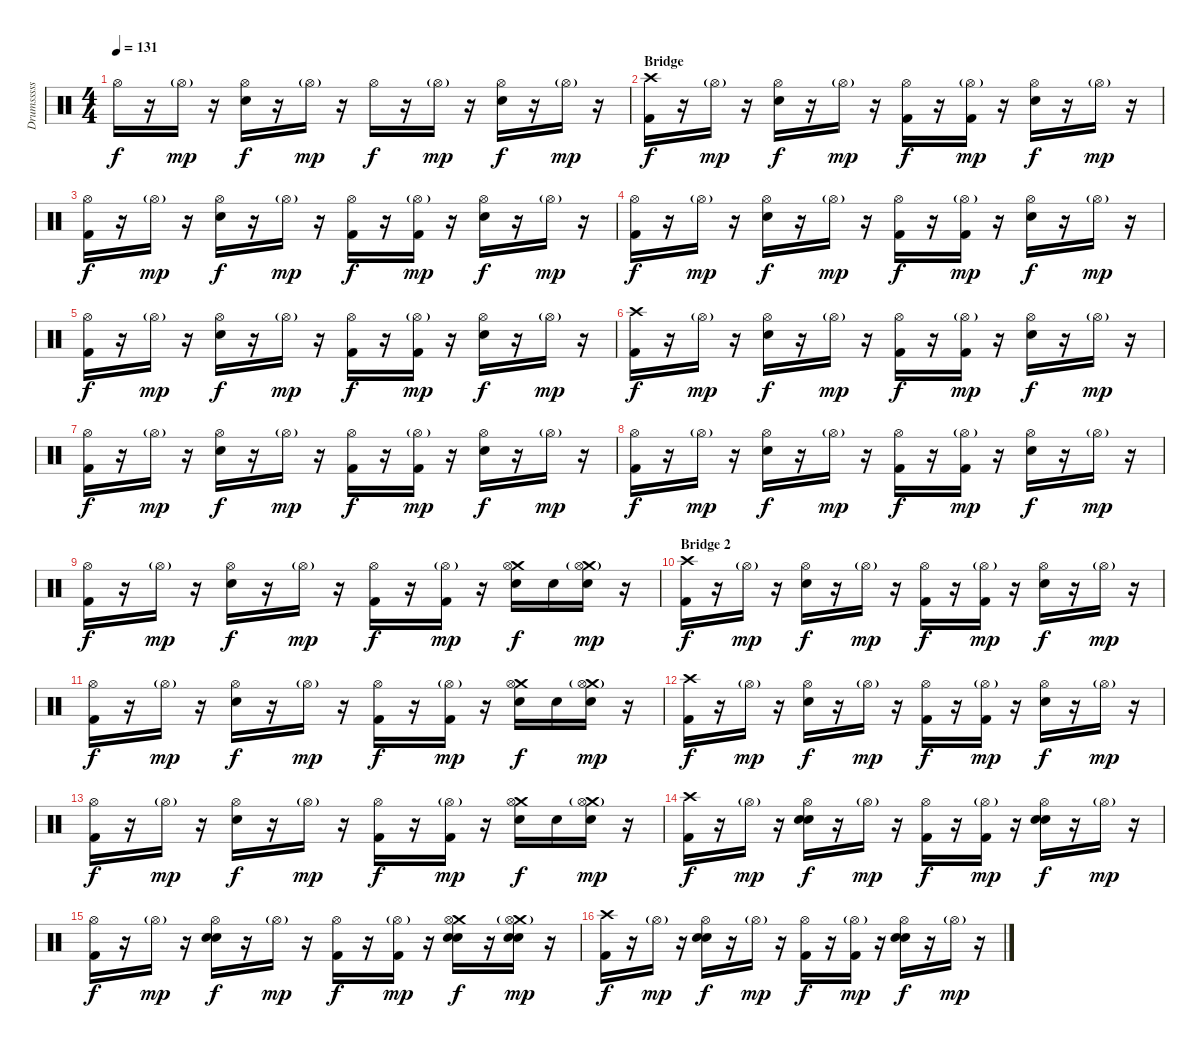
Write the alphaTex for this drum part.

\track ("Drumsssss" "Drumsssss") {instrument percussion}
\staff {score}
\articulation defaults
\ts (4 4)
\tempo 131
\clef neutral
\ks c "Hi-Hat (open)".16{dy f}
r.16 "Hi-Hat (open)"{g}.16{dy mp} r.16 ("Hi-Hat (open)" "Snare (hit) 2").16{dy f} r.16 "Hi-Hat (open)"{g}.16{dy mp} r.16 "Hi-Hat (open)".16{dy f} r.16 "Hi-Hat (open)"{g}.16{dy mp} r.16 ("Hi-Hat (open)" "Snare (hit) 2").16{dy f} r.16 "Hi-Hat (open)"{g}.16{dy mp} r.16 |
\section ("" "Bridge")
("Crash high (hit)" "Kick (hit) 2").16{dy f} r.16 "Hi-Hat (open)"{g}.16{dy mp} r.16 ("Hi-Hat (open)" "Snare (hit) 2").16{dy f} r.16 "Hi-Hat (open)"{g}.16{dy mp} r.16 ("Hi-Hat (open)" "Kick (hit) 2").16{dy f} r.16 ("Hi-Hat (open)"{g} "Kick (hit) 2").16{dy mp} r.16 ("Hi-Hat (open)" "Snare (hit) 2").16{dy f} r.16 "Hi-Hat (open)"{g}.16{dy mp} r.16 |
("Hi-Hat (open)" "Kick (hit) 2").16{dy f} r.16 "Hi-Hat (open)"{g}.16{dy mp} r.16 ("Hi-Hat (open)" "Snare (hit) 2").16{dy f} r.16 "Hi-Hat (open)"{g}.16{dy mp} r.16 ("Hi-Hat (open)" "Kick (hit) 2").16{dy f} r.16 ("Hi-Hat (open)"{g} "Kick (hit) 2").16{dy mp} r.16 ("Hi-Hat (open)" "Snare (hit) 2").16{dy f} r.16 "Hi-Hat (open)"{g}.16{dy mp} r.16 |
("Hi-Hat (open)" "Kick (hit) 2").16{dy f} r.16 "Hi-Hat (open)"{g}.16{dy mp} r.16 ("Hi-Hat (open)" "Snare (hit) 2").16{dy f} r.16 "Hi-Hat (open)"{g}.16{dy mp} r.16 ("Hi-Hat (open)" "Kick (hit) 2").16{dy f} r.16 ("Hi-Hat (open)"{g} "Kick (hit) 2").16{dy mp} r.16 ("Hi-Hat (open)" "Snare (hit) 2").16{dy f} r.16 "Hi-Hat (open)"{g}.16{dy mp} r.16 |
("Hi-Hat (open)" "Kick (hit) 2").16{dy f} r.16 "Hi-Hat (open)"{g}.16{dy mp} r.16 ("Hi-Hat (open)" "Snare (hit) 2").16{dy f} r.16 "Hi-Hat (open)"{g}.16{dy mp} r.16 ("Hi-Hat (open)" "Kick (hit) 2").16{dy f} r.16 ("Hi-Hat (open)"{g} "Kick (hit) 2").16{dy mp} r.16 ("Hi-Hat (open)" "Snare (hit) 2").16{dy f} r.16 "Hi-Hat (open)"{g}.16{dy mp} r.16 |
("Crash high (hit)" "Kick (hit) 2").16{dy f} r.16 "Hi-Hat (open)"{g}.16{dy mp} r.16 ("Hi-Hat (open)" "Snare (hit) 2").16{dy f} r.16 "Hi-Hat (open)"{g}.16{dy mp} r.16 ("Hi-Hat (open)" "Kick (hit) 2").16{dy f} r.16 ("Hi-Hat (open)"{g} "Kick (hit) 2").16{dy mp} r.16 ("Hi-Hat (open)" "Snare (hit) 2").16{dy f} r.16 "Hi-Hat (open)"{g}.16{dy mp} r.16 |
("Hi-Hat (open)" "Kick (hit) 2").16{dy f} r.16 "Hi-Hat (open)"{g}.16{dy mp} r.16 ("Hi-Hat (open)" "Snare (hit) 2").16{dy f} r.16 "Hi-Hat (open)"{g}.16{dy mp} r.16 ("Hi-Hat (open)" "Kick (hit) 2").16{dy f} r.16 ("Hi-Hat (open)"{g} "Kick (hit) 2").16{dy mp} r.16 ("Hi-Hat (open)" "Snare (hit) 2").16{dy f} r.16 "Hi-Hat (open)"{g}.16{dy mp} r.16 |
("Hi-Hat (open)" "Kick (hit) 2").16{dy f} r.16 "Hi-Hat (open)"{g}.16{dy mp} r.16 ("Hi-Hat (open)" "Snare (hit) 2").16{dy f} r.16 "Hi-Hat (open)"{g}.16{dy mp} r.16 ("Hi-Hat (open)" "Kick (hit) 2").16{dy f} r.16 ("Hi-Hat (open)"{g} "Kick (hit) 2").16{dy mp} r.16 ("Hi-Hat (open)" "Snare (hit) 2").16{dy f} r.16 "Hi-Hat (open)"{g}.16{dy mp} r.16 |
("Hi-Hat (open)" "Kick (hit) 2").16{dy f} r.16 "Hi-Hat (open)"{g}.16{dy mp} r.16 ("Hi-Hat (open)" "Snare (hit) 2").16{dy f} r.16 "Hi-Hat (open)"{g}.16{dy mp} r.16 ("Hi-Hat (open)" "Kick (hit) 2").16{dy f} r.16 ("Hi-Hat (open)"{g} "Kick (hit) 2").16{dy mp} r.16 ("Crash medium (hit)" "Hi-Hat (open)" "Snare (hit) 2").16{dy f} "Snare (hit) 2".16 ("Crash medium (hit)" "Hi-Hat (open)"{g} "Snare (hit) 2").16{dy mp} r.16 |
\section ("" "Bridge 2")
("Crash high (hit)" "Kick (hit) 2").16{dy f} r.16 "Hi-Hat (open)"{g}.16{dy mp} r.16 ("Hi-Hat (open)" "Snare (hit) 2").16{dy f} r.16 "Hi-Hat (open)"{g}.16{dy mp} r.16 ("Hi-Hat (open)" "Kick (hit) 2").16{dy f} r.16 ("Hi-Hat (open)"{g} "Kick (hit) 2").16{dy mp} r.16 ("Hi-Hat (open)" "Snare (hit) 2").16{dy f} r.16 "Hi-Hat (open)"{g}.16{dy mp} r.16 |
("Hi-Hat (open)" "Kick (hit) 2").16{dy f} r.16 "Hi-Hat (open)"{g}.16{dy mp} r.16 ("Hi-Hat (open)" "Snare (hit) 2").16{dy f} r.16 "Hi-Hat (open)"{g}.16{dy mp} r.16 ("Hi-Hat (open)" "Kick (hit) 2").16{dy f} r.16 ("Hi-Hat (open)"{g} "Kick (hit) 2").16{dy mp} r.16 ("Crash medium (hit)" "Hi-Hat (open)" "Snare (hit) 2").16{dy f} "Snare (hit) 2".16 ("Crash medium (hit)" "Hi-Hat (open)"{g} "Snare (hit) 2").16{dy mp} r.16 |
("Crash high (hit)" "Kick (hit) 2").16{dy f} r.16 "Hi-Hat (open)"{g}.16{dy mp} r.16 ("Hi-Hat (open)" "Snare (hit) 2").16{dy f} r.16 "Hi-Hat (open)"{g}.16{dy mp} r.16 ("Hi-Hat (open)" "Kick (hit) 2").16{dy f} r.16 ("Hi-Hat (open)"{g} "Kick (hit) 2").16{dy mp} r.16 ("Hi-Hat (open)" "Snare (hit) 2").16{dy f} r.16 "Hi-Hat (open)"{g}.16{dy mp} r.16 |
("Hi-Hat (open)" "Kick (hit) 2").16{dy f} r.16 "Hi-Hat (open)"{g}.16{dy mp} r.16 ("Hi-Hat (open)" "Snare (hit) 2").16{dy f} r.16 "Hi-Hat (open)"{g}.16{dy mp} r.16 ("Hi-Hat (open)" "Kick (hit) 2").16{dy f} r.16 ("Hi-Hat (open)"{g} "Kick (hit) 2").16{dy mp} r.16 ("Crash medium (hit)" "Hi-Hat (open)" "Snare (hit) 2").16{dy f} "Snare (hit) 2".16 ("Crash medium (hit)" "Hi-Hat (open)"{g} "Snare (hit) 2").16{dy mp} r.16 |
("Crash high (hit)" "Kick (hit) 2").16{dy f} r.16 "Hi-Hat (open)"{g}.16{dy mp} r.16 ("Hi-Hat (open)" "Hand Clap (hit)" "Hand Clap (hit)").16{dy f} r.16 "Hi-Hat (open)"{g}.16{dy mp} r.16 ("Hi-Hat (open)" "Kick (hit) 2").16{dy f} r.16 ("Hi-Hat (open)"{g} "Kick (hit) 2").16{dy mp} r.16 ("Hi-Hat (open)" "Hand Clap (hit)" "Hand Clap (hit)").16{dy f} r.16 "Hi-Hat (open)"{g}.16{dy mp} r.16 |
("Hi-Hat (open)" "Kick (hit) 2").16{dy f} r.16 "Hi-Hat (open)"{g}.16{dy mp} r.16 ("Hi-Hat (open)" "Hand Clap (hit)" "Hand Clap (hit)").16{dy f} r.16 "Hi-Hat (open)"{g}.16{dy mp} r.16 ("Hi-Hat (open)" "Kick (hit) 2").16{dy f} r.16 ("Hi-Hat (open)"{g} "Kick (hit) 2").16{dy mp} r.16 ("Crash medium (hit)" "Hi-Hat (open)" "Hand Clap (hit)" "Hand Clap (hit)").16{dy f} r.16 ("Crash medium (hit)" "Hi-Hat (open)"{g} "Hand Clap (hit)" "Hand Clap (hit)").16{dy mp} r.16 |
("Crash high (hit)" "Kick (hit) 2").16{dy f} r.16 "Hi-Hat (open)"{g}.16{dy mp} r.16 ("Hi-Hat (open)" "Hand Clap (hit)" "Hand Clap (hit)").16{dy f} r.16 "Hi-Hat (open)"{g}.16{dy mp} r.16 ("Hi-Hat (open)" "Kick (hit) 2").16{dy f} r.16 ("Hi-Hat (open)"{g} "Kick (hit) 2").16{dy mp} r.16 ("Hi-Hat (open)" "Hand Clap (hit)" "Hand Clap (hit)").16{dy f} r.16 "Hi-Hat (open)"{g}.16{dy mp} r.16
